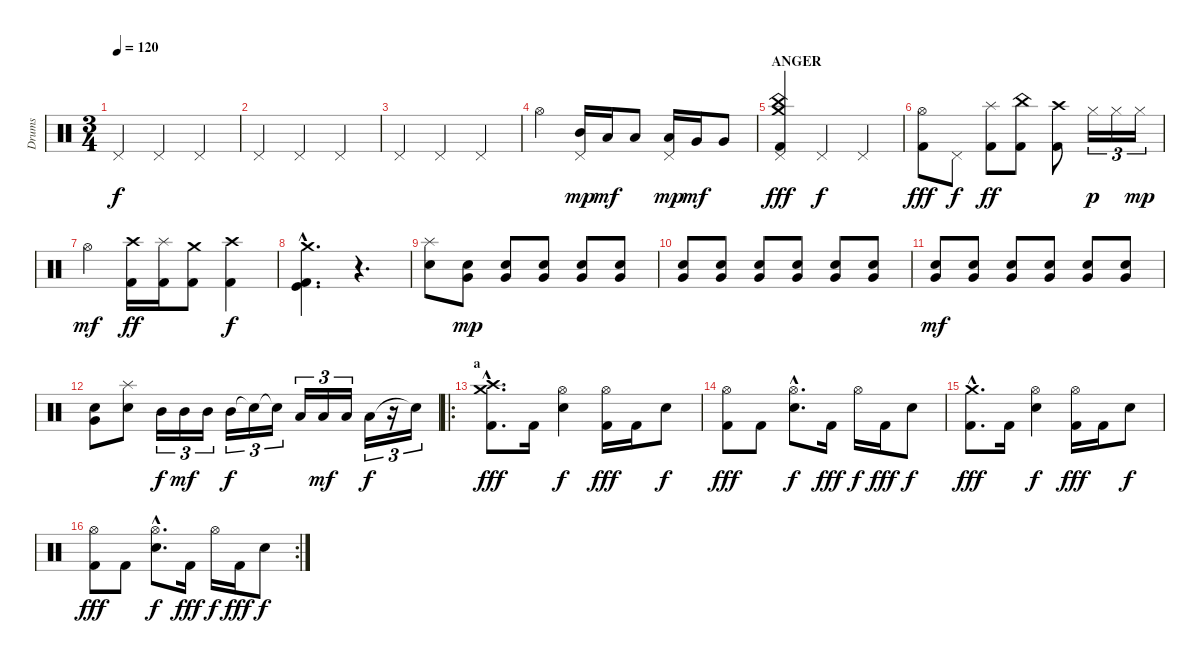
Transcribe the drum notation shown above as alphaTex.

\track ("Drums" "Drums") {instrument percussion}
\staff {score}
\articulation defaults
\ts (3 4)
\tempo 120
\clef neutral
\ks c "Pedal Hi-Hat (hit)".4{dy f} "Pedal Hi-Hat (hit)".4 "Pedal Hi-Hat (hit)".4
|
"Pedal Hi-Hat (hit)".4 "Pedal Hi-Hat (hit)".4 "Pedal Hi-Hat (hit)".4 |
"Pedal Hi-Hat (hit)".4 "Pedal Hi-Hat (hit)".4 "Pedal Hi-Hat (hit)".4 |
"Hi-Hat (open)".4 ("Pedal Hi-Hat (hit)" "Mid Tom (hit)").16{dy mp} "Low Tom (hit)".16{dy mf} "Low Tom (hit)".8 ("Pedal Hi-Hat (hit)" "Low Tom (hit)").16{dy mp} "Very Low Tom (hit)".16{dy mf} "Very Low Tom (hit)".8 |
\section ("" "ANGER")
("China (hit)" "Crash medium (hit)" "Pedal Hi-Hat (hit)" "Kick (hit) 2").4{dy fff} "Pedal Hi-Hat (hit)".4{dy f} "Pedal Hi-Hat (hit)".4 |
("Hi-Hat (open)" "Kick (hit) 2").8{dy fff} "Pedal Hi-Hat (hit)".8{dy f} ("Splash (hit)" "Kick (hit) 2").8{dy ff} ("China (hit)" "Kick (hit) 2").8 ("Crash high (hit)" "Kick (hit) 2").8 "Hi-Hat (closed)".16{tu (3 2) dy p} "Hi-Hat (closed)".16{tu (3 2)} "Hi-Hat (closed)".16{tu (3 2) dy mp} |
"Hi-Hat (open)".4{dy mf} ("Crash high (hit)" "Kick (hit) 2").16{dy ff} ("Splash (hit)" "Kick (hit) 2").16 ("Crash medium (hit)" "Kick (hit) 2").8 ("Crash high (hit)" "Kick (hit) 2").4{dy f} |
("Crash medium (hit)"{hac} "Kick (hit)"{hac} "Kick (hit) 2"{hac}).4{d} r.4{d} |
("Splash (hit)" "Electric Snare (hit)").8 ("Very Low Tom (hit)" "Electric Snare (hit)").8{dy mp} ("Very Low Tom (hit)" "Electric Snare (hit)").8 ("Very Low Tom (hit)" "Electric Snare (hit)").8 ("Very Low Tom (hit)" "Electric Snare (hit)").8 ("Very Low Tom (hit)" "Electric Snare (hit)").8 |
("Very Low Tom (hit)" "Electric Snare (hit)").8 ("Very Low Tom (hit)" "Electric Snare (hit)").8 ("Very Low Tom (hit)" "Electric Snare (hit)").8 ("Very Low Tom (hit)" "Electric Snare (hit)").8 ("Very Low Tom (hit)" "Electric Snare (hit)").8 ("Very Low Tom (hit)" "Electric Snare (hit)").8 |
("Very Low Tom (hit)" "Electric Snare (hit)").8{dy mf} ("Very Low Tom (hit)" "Electric Snare (hit)").8 ("Very Low Tom (hit)" "Electric Snare (hit)").8 ("Very Low Tom (hit)" "Electric Snare (hit)").8 ("Very Low Tom (hit)" "Electric Snare (hit)").8 ("Very Low Tom (hit)" "Electric Snare (hit)").8 |
("Very Low Tom (hit)" "Electric Snare (hit)").8 ("Splash (hit)" "Electric Snare (hit)").8 "Mid Tom (hit)".16{tu (3 2) dy f} "Mid Tom (hit)".16{tu (3 2) dy mf} "Mid Tom (hit)".16{tu (3 2)} "Mid Tom (hit)".16{tu (3 2) dy f} "Snare (hit)"{t}.16{tu (3 2)} "Snare (hit)"{t}.16{tu (3 2)} "Low Tom (hit)".16{tu (3 2)} "Low Tom (hit)".16{tu (3 2) dy mf} "Low Tom (hit)".16{tu (3 2)} "Low Tom (hit)".16{tu (3 2) dy f} r.16{tu (3 2)} "Snare (hit)"{t}.16{tu (3 2)} |
\ro
\section ("" "a")
("Crash medium (hit)"{hac} "Crash high (hit)"{hac} "Kick (hit) 2"{hac}).8{d dy fff} "Kick (hit) 2".16 ("Hi-Hat (open)" "Electric Snare (hit)").4{dy f} ("Hi-Hat (open)" "Kick (hit) 2").16{dy fff} "Kick (hit) 2".16 "Electric Snare (hit)".8{dy f} |
("Hi-Hat (open)" "Kick (hit) 2").8{dy fff} "Kick (hit) 2".8 ("Hi-Hat (open)"{hac} "Electric Snare (hit)"{hac}).8{d dy f} "Kick (hit) 2".16{dy fff} "Hi-Hat (open)".16{dy f} "Kick (hit) 2".16{dy fff} "Electric Snare (hit)".8{dy f} |
("Crash medium (hit)"{hac} "Kick (hit) 2"{hac}).8{d dy fff} "Kick (hit) 2".16 ("Hi-Hat (open)" "Electric Snare (hit)").4{dy f} ("Hi-Hat (open)" "Kick (hit) 2").16{dy fff} "Kick (hit) 2".16 "Electric Snare (hit)".8{dy f} |
\rc 2
("Hi-Hat (open)" "Kick (hit) 2").8{dy fff} "Kick (hit) 2".8 ("Hi-Hat (open)"{hac} "Electric Snare (hit)"{hac}).8{d dy f} "Kick (hit) 2".16{dy fff} "Hi-Hat (open)".16{dy f} "Kick (hit) 2".16{dy fff} "Electric Snare (hit)".8{dy f}
